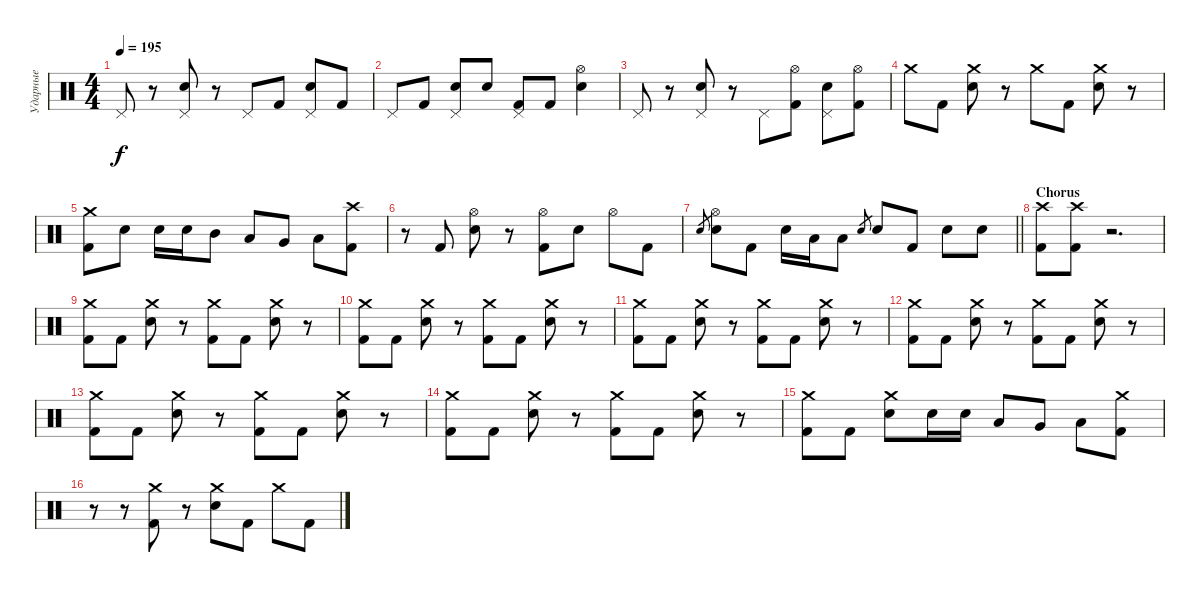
\track ("Ударные" "Ударные") {instrument percussion}
\staff {score}
\articulation defaults
\ts (4 4)
\tempo 195
\clef neutral
\ks c "Pedal Hi-Hat (hit)".8{dy f}
r.8 ("Pedal Hi-Hat (hit)" "Electric Snare (hit)").8 r.8 "Pedal Hi-Hat (hit)".8 "Kick (hit) 2".8 ("Pedal Hi-Hat (hit)" "Electric Snare (hit)").8 "Kick (hit) 2".8 |
"Pedal Hi-Hat (hit)".8 "Kick (hit) 2".8 ("Pedal Hi-Hat (hit)" "Electric Snare (hit)").8 "Electric Snare (hit)".8 ("Pedal Hi-Hat (hit)" "Kick (hit) 2").8 "Kick (hit) 2".8 ("Hi-Hat (open)" "Electric Snare (hit)").4 |
"Pedal Hi-Hat (hit)".8 r.8 ("Pedal Hi-Hat (hit)" "Electric Snare (hit)").8 r.8 "Pedal Hi-Hat (hit)".8 ("Hi-Hat (open)" "Kick (hit) 2").8 ("Pedal Hi-Hat (hit)" "Electric Snare (hit)").8 ("Hi-Hat (open)" "Kick (hit) 2").8 |
"Crash medium (hit)".8 "Kick (hit) 2".8 ("Crash medium (hit)" "Electric Snare (hit)").8 r.8 "Crash medium (hit)".8 "Kick (hit) 2".8 ("Crash medium (hit)" "Electric Snare (hit)").8 r.8 |
("Crash medium (hit)" "Kick (hit) 2").8 "Electric Snare (hit)".8 "Electric Snare (hit)".16 "Electric Snare (hit)".16 "Mid Tom (hit)".8 "Low Tom (hit)".8 "Very Low Tom (hit)".8 "Low Floor Tom (hit)".8 ("Crash high (hit)" "Kick (hit) 2").8 |
r.8 "Kick (hit) 2".8 ("Hi-Hat (open)" "Electric Snare (hit)").8 r.8 ("Hi-Hat (open)" "Kick (hit) 2").8 "Electric Snare (hit)".8 "Hi-Hat (open)".8 "Kick (hit) 2".8 |
\barLineRight lightlight "Electric Snare (hit)".8{gr}
("Hi-Hat (open)" "Electric Snare (hit)").8 "Kick (hit) 2".8 "Electric Snare (hit)".16 "Low Tom (hit)".16 "Low Floor Tom (hit)".8 "Electric Snare (hit)".8{gr} "Electric Snare (hit)".8 "Kick (hit) 2".8 "Electric Snare (hit)".8 "Electric Snare (hit)".8 |
\section ("" "Сhorus")
("Crash high (hit)" "Kick (hit) 2").8 ("Crash high (hit)" "Kick (hit) 2").8 r.2{d} |
("Crash medium (hit)" "Kick (hit) 2").8 "Kick (hit) 2".8 ("Crash medium (hit)" "Electric Snare (hit)").8 r.8 ("Crash medium (hit)" "Kick (hit) 2").8 "Kick (hit) 2".8 ("Crash medium (hit)" "Electric Snare (hit)").8 r.8 |
("Crash medium (hit)" "Kick (hit) 2").8 "Kick (hit) 2".8 ("Crash medium (hit)" "Electric Snare (hit)").8 r.8 ("Crash medium (hit)" "Kick (hit) 2").8 "Kick (hit) 2".8 ("Crash medium (hit)" "Electric Snare (hit)").8 r.8 |
("Crash medium (hit)" "Kick (hit) 2").8 "Kick (hit) 2".8 ("Crash medium (hit)" "Electric Snare (hit)").8 r.8 ("Crash medium (hit)" "Kick (hit) 2").8 "Kick (hit) 2".8 ("Crash medium (hit)" "Electric Snare (hit)").8 r.8 |
("Crash medium (hit)" "Kick (hit) 2").8 "Kick (hit) 2".8 ("Crash medium (hit)" "Electric Snare (hit)").8 r.8 ("Crash medium (hit)" "Kick (hit) 2").8 "Kick (hit) 2".8 ("Crash medium (hit)" "Electric Snare (hit)").8 r.8 |
("Crash medium (hit)" "Kick (hit) 2").8 "Kick (hit) 2".8 ("Crash medium (hit)" "Electric Snare (hit)").8 r.8 ("Crash medium (hit)" "Kick (hit) 2").8 "Kick (hit) 2".8 ("Crash medium (hit)" "Electric Snare (hit)").8 r.8 |
("Crash medium (hit)" "Kick (hit) 2").8 "Kick (hit) 2".8 ("Crash medium (hit)" "Electric Snare (hit)").8 r.8 ("Crash medium (hit)" "Kick (hit) 2").8 "Kick (hit) 2".8 ("Crash medium (hit)" "Electric Snare (hit)").8 r.8 |
("Crash medium (hit)" "Kick (hit) 2").8 "Kick (hit) 2".8 ("Crash medium (hit)" "Electric Snare (hit)").8 "Electric Snare (hit)".16 "Electric Snare (hit)".16 "Low Tom (hit)".8 "Very Low Tom (hit)".8 "Low Tom (hit)".8 ("Crash medium (hit)" "Kick (hit) 2").8 |
r.8 r.8 ("Crash medium (hit)" "Kick (hit) 2").8 r.8 ("Crash medium (hit)" "Electric Snare (hit)").8 "Kick (hit) 2".8 "Crash medium (hit)".8 "Kick (hit) 2".8
